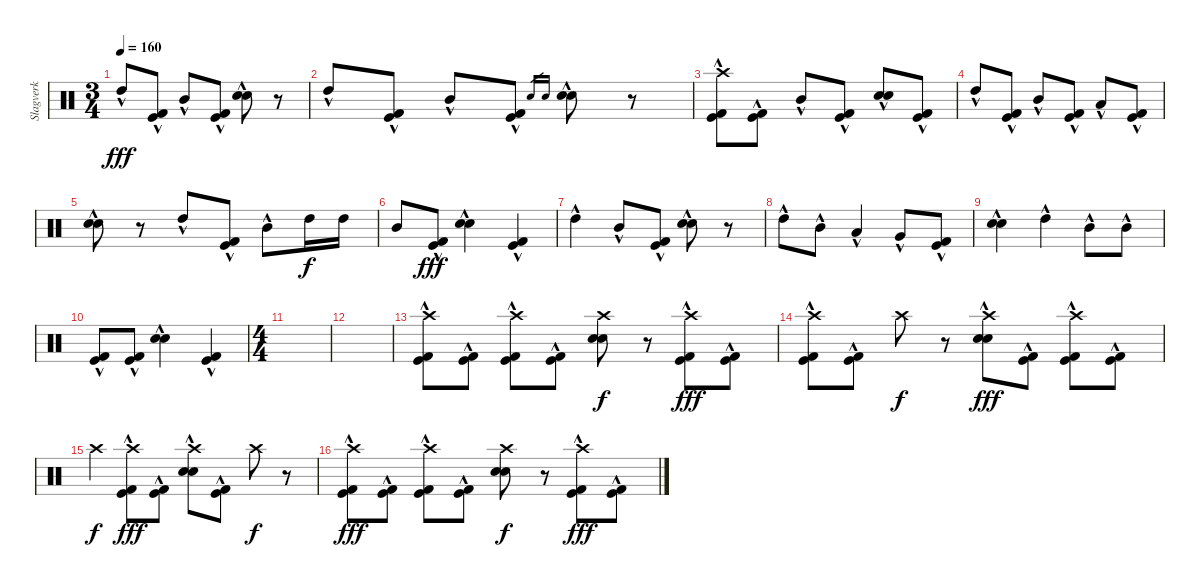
\track ("Slagverk" "Slagverk") {instrument percussion}
\staff {score}
\articulation defaults
\ts (3 4)
\tempo 160
\clef neutral
\ks c "High Tom (hit)"{hac}.8{dy fff}
("Kick (hit)"{hac} "Kick (hit) 2"{hac}).8 "Mid Tom (hit)"{hac}.8 ("Kick (hit)"{hac} "Kick (hit) 2"{hac}).8 ("Electric Snare (hit)"{hac} "Snare (hit) 2"{hac}).8 r.8 |
"High Tom (hit)"{hac}.8 ("Kick (hit)"{hac} "Kick (hit) 2"{hac}).8 "Mid Tom (hit)"{hac}.8 ("Kick (hit)"{hac} "Kick (hit) 2"{hac}).8 "Electric Snare (hit)".16{gr} "Snare (hit) 2".16{gr} ("Electric Snare (hit)"{hac} "Snare (hit) 2"{hac}).8 r.8 |
("Crash high (hit)" "Kick (hit)"{hac} "Kick (hit) 2").8 ("Kick (hit)"{hac} "Kick (hit) 2"{hac}).8 "Mid Tom (hit)"{hac}.8 ("Kick (hit)"{hac} "Kick (hit) 2"{hac}).8 ("Electric Snare (hit)"{hac} "Snare (hit) 2"{hac}).8 ("Kick (hit)"{hac} "Kick (hit) 2"{hac}).8 |
"High Tom (hit)"{hac}.8 ("Kick (hit)"{hac} "Kick (hit) 2"{hac}).8 "Mid Tom (hit)"{hac}.8 ("Kick (hit)"{hac} "Kick (hit) 2"{hac}).8 "Low Tom (hit)"{hac}.8 ("Kick (hit)"{hac} "Kick (hit) 2"{hac}).8 |
("Electric Snare (hit)"{hac} "Snare (hit) 2"{hac}).8 r.8 "High Tom (hit)"{hac}.8 ("Kick (hit)"{hac} "Kick (hit) 2"{hac}).8 "Mid Tom (hit)"{hac}.8 "High Tom (hit)".16{dy f} "High Tom (hit)".16 |
"Mid Tom (hit)".8 ("Kick (hit)"{hac} "Kick (hit) 2"{hac}).8{dy fff} ("Electric Snare (hit)"{hac} "Snare (hit) 2"{hac}).4 ("Kick (hit)"{hac} "Kick (hit) 2"{hac}).4 |
"High Tom (hit)"{hac}.4 "Mid Tom (hit)"{hac}.8 ("Kick (hit)"{hac} "Kick (hit) 2"{hac}).8 ("Electric Snare (hit)"{hac} "Snare (hit) 2"{hac}).8 r.8 |
"High Tom (hit)"{hac}.8 "Mid Tom (hit)"{hac}.8 "Low Tom (hit)"{hac}.4 "Very Low Tom (hit)"{hac}.8 ("Kick (hit)"{hac} "Kick (hit) 2"{hac}).8 |
("Electric Snare (hit)"{hac} "Snare (hit) 2"{hac}).4 "High Tom (hit)"{hac}.4 "Mid Tom (hit)"{hac}.8 "Mid Tom (hit)"{hac}.8 |
("Kick (hit)"{hac} "Kick (hit) 2"{hac}).8 ("Kick (hit)"{hac} "Kick (hit) 2"{hac}).8 ("Electric Snare (hit)"{hac} "Snare (hit) 2"{hac}).4 ("Kick (hit)"{hac} "Kick (hit) 2"{hac}).4 |
\ts (4 4)
|
|
("Crash high (hit)" "Kick (hit)"{hac} "Kick (hit) 2"{hac}).8 ("Kick (hit)"{hac} "Kick (hit) 2"{hac}).8 ("Crash high (hit)" "Kick (hit)"{hac} "Kick (hit) 2"{hac}).8 ("Kick (hit)"{hac} "Kick (hit) 2"{hac}).8 ("Crash high (hit)" "Electric Snare (hit)" "Snare (hit) 2").8{dy f} r.8 ("Crash high (hit)" "Kick (hit)"{hac} "Kick (hit) 2"{hac}).8{dy fff} ("Kick (hit)"{hac} "Kick (hit) 2"{hac}).8 |
("Crash high (hit)" "Kick (hit)"{hac} "Kick (hit) 2"{hac}).8 ("Kick (hit)"{hac} "Kick (hit) 2"{hac}).8 "Crash high (hit)".8{dy f} r.8 ("Crash high (hit)" "Electric Snare (hit)"{hac} "Snare (hit) 2"{hac}).8{dy fff} ("Kick (hit)"{hac} "Kick (hit) 2"{hac}).8 ("Crash high (hit)" "Kick (hit)"{hac} "Kick (hit) 2"{hac}).8 ("Kick (hit)"{hac} "Kick (hit) 2"{hac}).8 |
"Crash high (hit)".4{dy f} ("Crash high (hit)" "Kick (hit)"{hac} "Kick (hit) 2"{hac}).8{dy fff} ("Kick (hit)"{hac} "Kick (hit) 2"{hac}).8 ("Crash high (hit)" "Electric Snare (hit)"{hac} "Snare (hit) 2"{hac}).8 ("Kick (hit)"{hac} "Kick (hit) 2"{hac}).8 "Crash high (hit)".8{dy f} r.8 |
("Crash high (hit)" "Kick (hit)"{hac} "Kick (hit) 2"{hac}).8{dy fff} ("Kick (hit)"{hac} "Kick (hit) 2"{hac}).8 ("Crash high (hit)" "Kick (hit)"{hac} "Kick (hit) 2"{hac}).8 ("Kick (hit)"{hac} "Kick (hit) 2"{hac}).8 ("Crash high (hit)" "Electric Snare (hit)" "Snare (hit) 2").8{dy f} r.8 ("Crash high (hit)" "Kick (hit)"{hac} "Kick (hit) 2"{hac}).8{dy fff} ("Kick (hit)"{hac} "Kick (hit) 2"{hac}).8
